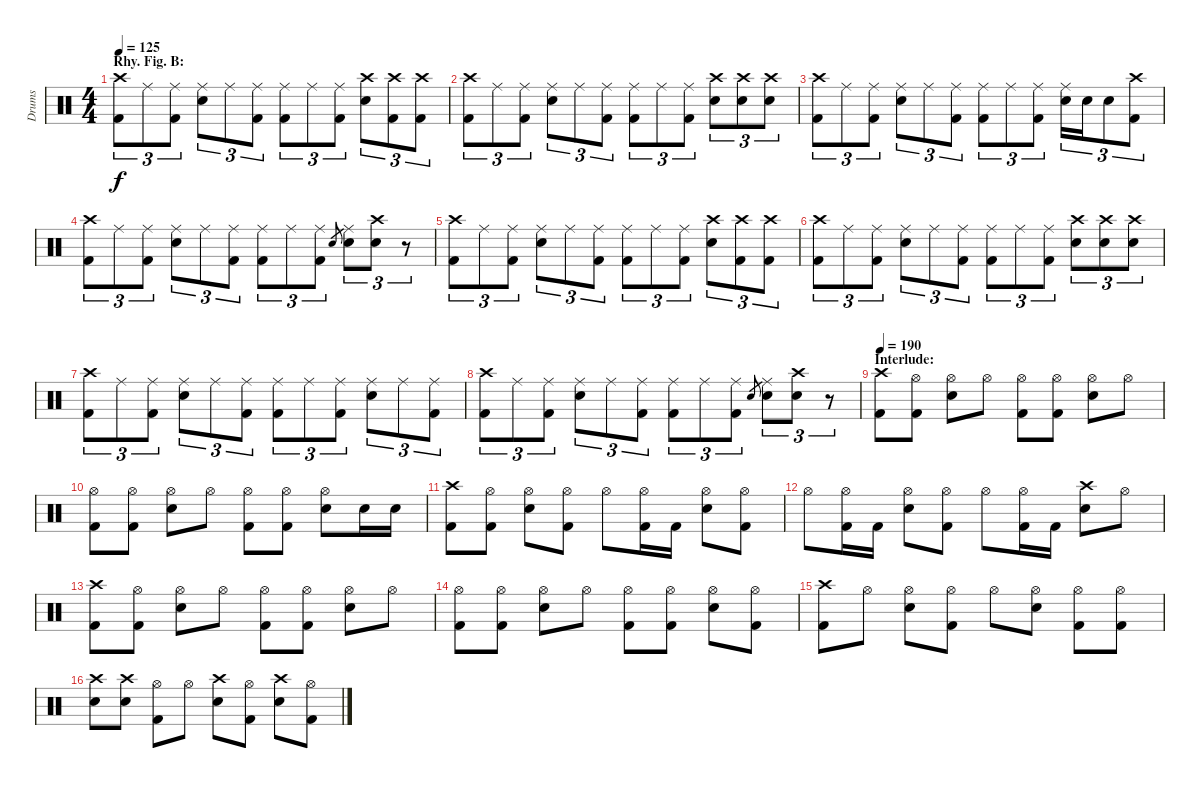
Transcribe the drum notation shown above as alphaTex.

\track ("Drums" "Drums") {instrument percussion}
\staff {score}
\articulation defaults
\ts (4 4)
\section ("" "Rhy. Fig. B:")
\tempo 125
\clef neutral
\ks c
("Crash high (hit)" "Kick (hit) 2").8{tu (3 2) dy f} "Ride (middle)".8{tu (3 2)} ("Ride (middle)" "Kick (hit) 2").8{tu (3 2)} ("Ride (middle)" "Electric Snare (hit)").8{tu (3 2)} "Ride (middle)".8{tu (3 2)} ("Ride (middle)" "Kick (hit) 2").8{tu (3 2)} ("Ride (middle)" "Kick (hit) 2").8{tu (3 2)} "Ride (middle)".8{tu (3 2)} ("Ride (middle)" "Kick (hit) 2").8{tu (3 2)} ("Crash high (hit)" "Electric Snare (hit)").8{tu (3 2)} ("Crash high (hit)" "Kick (hit) 2").8{tu (3 2)} ("Crash high (hit)" "Kick (hit) 2").8{tu (3 2)} |
("Crash high (hit)" "Kick (hit) 2").8{tu (3 2)} "Ride (middle)".8{tu (3 2)} ("Ride (middle)" "Kick (hit) 2").8{tu (3 2)} ("Ride (middle)" "Electric Snare (hit)").8{tu (3 2)} "Ride (middle)".8{tu (3 2)} ("Ride (middle)" "Kick (hit) 2").8{tu (3 2)} ("Ride (middle)" "Kick (hit) 2").8{tu (3 2)} "Ride (middle)".8{tu (3 2)} ("Ride (middle)" "Kick (hit) 2").8{tu (3 2)} ("Crash high (hit)" "Electric Snare (hit)").8{tu (3 2)} ("Crash high (hit)" "Electric Snare (hit)").8{tu (3 2)} ("Crash high (hit)" "Electric Snare (hit)").8{tu (3 2)} |
("Crash high (hit)" "Kick (hit) 2").8{tu (3 2)} "Ride (middle)".8{tu (3 2)} ("Ride (middle)" "Kick (hit) 2").8{tu (3 2)} ("Ride (middle)" "Electric Snare (hit)").8{tu (3 2)} "Ride (middle)".8{tu (3 2)} ("Ride (middle)" "Kick (hit) 2").8{tu (3 2)} ("Ride (middle)" "Kick (hit) 2").8{tu (3 2)} "Ride (middle)".8{tu (3 2)} ("Ride (middle)" "Kick (hit) 2").8{tu (3 2)} ("Ride (middle)" "Electric Snare (hit)").16{tu (3 2)} "Electric Snare (hit)".16{tu (3 2)} "Electric Snare (hit)".8{tu (3 2)} ("Crash high (hit)" "Kick (hit) 2").8{tu (3 2)} |
("Crash high (hit)" "Kick (hit) 2").8{tu (3 2)} "Ride (middle)".8{tu (3 2)} ("Ride (middle)" "Kick (hit) 2").8{tu (3 2)} ("Ride (middle)" "Electric Snare (hit)").8{tu (3 2)} "Ride (middle)".8{tu (3 2)} ("Ride (middle)" "Kick (hit) 2").8{tu (3 2)} ("Ride (middle)" "Kick (hit) 2").8{tu (3 2)} "Ride (middle)".8{tu (3 2)} ("Ride (middle)" "Kick (hit) 2").8{tu (3 2)} "Electric Snare (hit)".8{gr} ("Ride (middle)" "Electric Snare (hit)").8{tu (3 2)} ("Crash high (hit)" "Electric Snare (hit)").8{tu (3 2)} r.8{tu (3 2)} |
("Crash high (hit)" "Kick (hit) 2").8{tu (3 2)} "Ride (middle)".8{tu (3 2)} ("Ride (middle)" "Kick (hit) 2").8{tu (3 2)} ("Ride (middle)" "Electric Snare (hit)").8{tu (3 2)} "Ride (middle)".8{tu (3 2)} ("Ride (middle)" "Kick (hit) 2").8{tu (3 2)} ("Ride (middle)" "Kick (hit) 2").8{tu (3 2)} "Ride (middle)".8{tu (3 2)} ("Ride (middle)" "Kick (hit) 2").8{tu (3 2)} ("Crash high (hit)" "Electric Snare (hit)").8{tu (3 2)} ("Crash high (hit)" "Kick (hit) 2").8{tu (3 2)} ("Crash high (hit)" "Kick (hit) 2").8{tu (3 2)} |
("Crash high (hit)" "Kick (hit) 2").8{tu (3 2)} "Ride (middle)".8{tu (3 2)} ("Ride (middle)" "Kick (hit) 2").8{tu (3 2)} ("Ride (middle)" "Electric Snare (hit)").8{tu (3 2)} "Ride (middle)".8{tu (3 2)} ("Ride (middle)" "Kick (hit) 2").8{tu (3 2)} ("Ride (middle)" "Kick (hit) 2").8{tu (3 2)} "Ride (middle)".8{tu (3 2)} ("Ride (middle)" "Kick (hit) 2").8{tu (3 2)} ("Crash high (hit)" "Electric Snare (hit)").8{tu (3 2)} ("Crash high (hit)" "Electric Snare (hit)").8{tu (3 2)} ("Crash high (hit)" "Electric Snare (hit)").8{tu (3 2)} |
("Crash high (hit)" "Kick (hit) 2").8{tu (3 2)} "Ride (middle)".8{tu (3 2)} ("Ride (middle)" "Kick (hit) 2").8{tu (3 2)} ("Ride (middle)" "Electric Snare (hit)").8{tu (3 2)} "Ride (middle)".8{tu (3 2)} ("Ride (middle)" "Kick (hit) 2").8{tu (3 2)} ("Ride (middle)" "Kick (hit) 2").8{tu (3 2)} "Ride (middle)".8{tu (3 2)} ("Ride (middle)" "Kick (hit) 2").8{tu (3 2)} ("Ride (middle)" "Electric Snare (hit)").8{tu (3 2)} "Ride (middle)".8{tu (3 2)} ("Ride (middle)" "Kick (hit) 2").8{tu (3 2)} |
("Crash high (hit)" "Kick (hit) 2").8{tu (3 2)} "Ride (middle)".8{tu (3 2)} ("Ride (middle)" "Kick (hit) 2").8{tu (3 2)} ("Ride (middle)" "Electric Snare (hit)").8{tu (3 2)} "Ride (middle)".8{tu (3 2)} ("Ride (middle)" "Kick (hit) 2").8{tu (3 2)} ("Ride (middle)" "Kick (hit) 2").8{tu (3 2)} "Ride (middle)".8{tu (3 2)} ("Ride (middle)" "Kick (hit) 2").8{tu (3 2)} "Electric Snare (hit)".8{gr} ("Ride (middle)" "Electric Snare (hit)").8{tu (3 2)} ("Crash high (hit)" "Electric Snare (hit)").8{tu (3 2)} r.8{tu (3 2)} |
\section ("" "Interlude:")
\tempo 190
("Crash high (hit)" "Kick (hit) 2").8 ("Hi-Hat (open)" "Kick (hit) 2").8 ("Hi-Hat (open)" "Electric Snare (hit)").8 "Hi-Hat (open)".8 ("Hi-Hat (open)" "Kick (hit) 2").8 ("Hi-Hat (open)" "Kick (hit) 2").8 ("Hi-Hat (open)" "Electric Snare (hit)").8 "Hi-Hat (open)".8 |
("Hi-Hat (open)" "Kick (hit) 2").8 ("Hi-Hat (open)" "Kick (hit) 2").8 ("Hi-Hat (open)" "Electric Snare (hit)").8 "Hi-Hat (open)".8 ("Hi-Hat (open)" "Kick (hit) 2").8 ("Hi-Hat (open)" "Kick (hit) 2").8 ("Hi-Hat (open)" "Electric Snare (hit)").8 "Electric Snare (hit)".16 "Electric Snare (hit)".16 |
("Crash high (hit)" "Kick (hit) 2").8 ("Hi-Hat (open)" "Kick (hit) 2").8 ("Hi-Hat (open)" "Electric Snare (hit)").8 ("Hi-Hat (open)" "Kick (hit) 2").8 "Hi-Hat (open)".8 ("Hi-Hat (open)" "Kick (hit) 2").16 "Kick (hit) 2".16 ("Hi-Hat (open)" "Electric Snare (hit)").8 ("Hi-Hat (open)" "Kick (hit) 2").8 |
"Hi-Hat (open)".8 ("Hi-Hat (open)" "Kick (hit) 2").16 "Kick (hit) 2".16 ("Hi-Hat (open)" "Electric Snare (hit)").8 ("Hi-Hat (open)" "Kick (hit) 2").8 "Hi-Hat (open)".8 ("Hi-Hat (open)" "Kick (hit) 2").16 "Kick (hit) 2".16 ("Crash high (hit)" "Electric Snare (hit)").8 "Hi-Hat (open)".8 |
("Crash high (hit)" "Kick (hit) 2").8 ("Hi-Hat (open)" "Kick (hit) 2").8 ("Hi-Hat (open)" "Electric Snare (hit)").8 "Hi-Hat (open)".8 ("Hi-Hat (open)" "Kick (hit) 2").8 ("Hi-Hat (open)" "Kick (hit) 2").8 ("Hi-Hat (open)" "Electric Snare (hit)").8 "Hi-Hat (open)".8 |
("Hi-Hat (open)" "Kick (hit) 2").8 ("Hi-Hat (open)" "Kick (hit) 2").8 ("Hi-Hat (open)" "Electric Snare (hit)").8 "Hi-Hat (open)".8 ("Hi-Hat (open)" "Kick (hit) 2").8 ("Hi-Hat (open)" "Kick (hit) 2").8 ("Hi-Hat (open)" "Electric Snare (hit)").8 ("Hi-Hat (open)" "Kick (hit) 2").8 |
("Crash high (hit)" "Kick (hit) 2").8 "Hi-Hat (open)".8 ("Hi-Hat (open)" "Electric Snare (hit)").8 ("Hi-Hat (open)" "Kick (hit) 2").8 "Hi-Hat (open)".8 ("Hi-Hat (open)" "Electric Snare (hit)").8 ("Hi-Hat (open)" "Kick (hit) 2").8 ("Hi-Hat (open)" "Kick (hit) 2").8 |
("Crash high (hit)" "Electric Snare (hit)").8 ("Crash high (hit)" "Electric Snare (hit)").8 ("Hi-Hat (open)" "Kick (hit) 2").8 "Hi-Hat (open)".8 ("Crash high (hit)" "Electric Snare (hit)").8 ("Hi-Hat (open)" "Kick (hit) 2").8 ("Crash high (hit)" "Electric Snare (hit)").8 ("Hi-Hat (open)" "Kick (hit) 2").8
